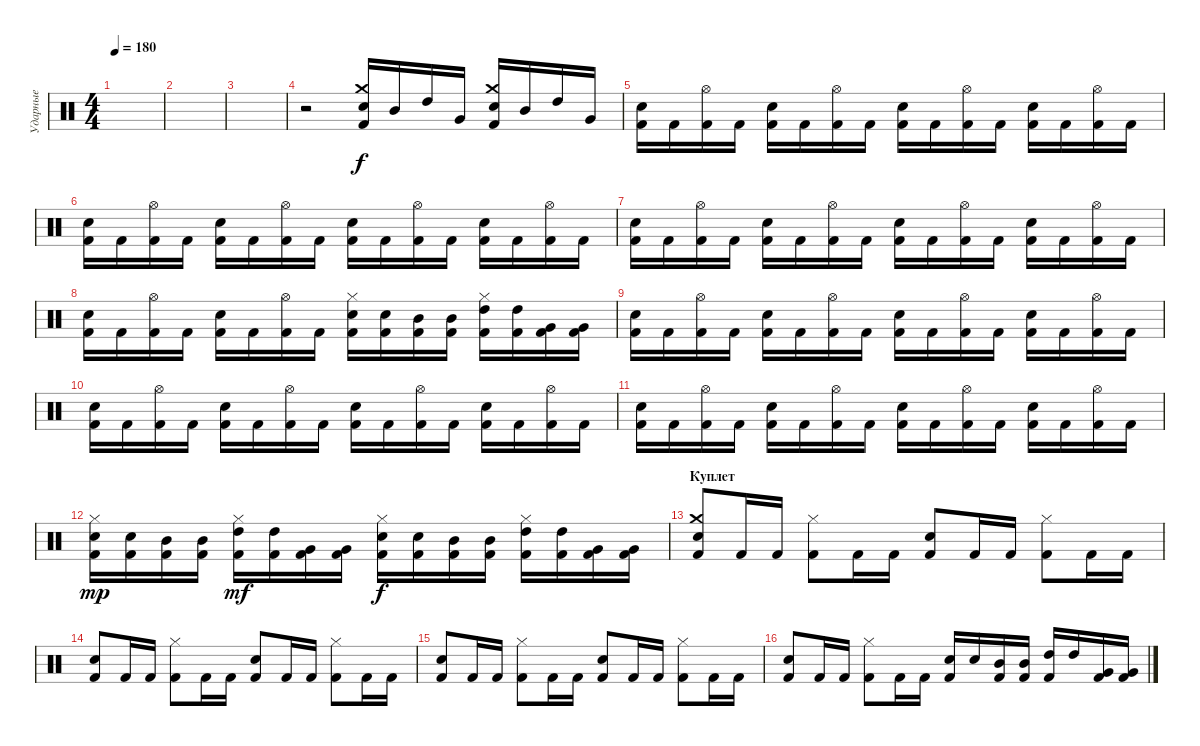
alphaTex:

\track ("Ударные" "Ударные") {instrument percussion}
\staff {score}
\articulation defaults
\ts (4 4)
\tempo 180
\clef neutral
\ks c
|
|
|
r.2 ("Snare (hit) 2" "Crash medium (hit)" "Kick (hit) 2").16 "Mid Tom (hit)".16 "High Tom (hit)".16 "Very Low Tom (hit)".16 ("Snare (hit) 2" "Crash medium (hit)" "Kick (hit) 2").16 "Mid Tom (hit)".16 "High Tom (hit)".16 "Very Low Tom (hit)".16 |
("Kick (hit) 2" "Snare (hit) 2").16 "Kick (hit) 2".16 ("Kick (hit) 2" "Hi-Hat (open)").16 "Kick (hit) 2".16 ("Kick (hit) 2" "Snare (hit) 2").16 "Kick (hit) 2".16 ("Kick (hit) 2" "Hi-Hat (open)").16 "Kick (hit) 2".16 ("Kick (hit) 2" "Snare (hit) 2").16 "Kick (hit) 2".16 ("Kick (hit) 2" "Hi-Hat (open)").16 "Kick (hit) 2".16 ("Kick (hit) 2" "Snare (hit) 2").16 "Kick (hit) 2".16 ("Kick (hit) 2" "Hi-Hat (open)").16 "Kick (hit) 2".16 |
("Kick (hit) 2" "Snare (hit) 2").16 "Kick (hit) 2".16 ("Kick (hit) 2" "Hi-Hat (open)").16 "Kick (hit) 2".16 ("Kick (hit) 2" "Snare (hit) 2").16 "Kick (hit) 2".16 ("Kick (hit) 2" "Hi-Hat (open)").16 "Kick (hit) 2".16 ("Kick (hit) 2" "Snare (hit) 2").16 "Kick (hit) 2".16 ("Kick (hit) 2" "Hi-Hat (open)").16 "Kick (hit) 2".16 ("Kick (hit) 2" "Snare (hit) 2").16 "Kick (hit) 2".16 ("Kick (hit) 2" "Hi-Hat (open)").16 "Kick (hit) 2".16 |
("Kick (hit) 2" "Snare (hit) 2").16 "Kick (hit) 2".16 ("Kick (hit) 2" "Hi-Hat (open)").16 "Kick (hit) 2".16 ("Kick (hit) 2" "Snare (hit) 2").16 "Kick (hit) 2".16 ("Kick (hit) 2" "Hi-Hat (open)").16 "Kick (hit) 2".16 ("Kick (hit) 2" "Snare (hit) 2").16 "Kick (hit) 2".16 ("Kick (hit) 2" "Hi-Hat (open)").16 "Kick (hit) 2".16 ("Kick (hit) 2" "Snare (hit) 2").16 "Kick (hit) 2".16 ("Kick (hit) 2" "Hi-Hat (open)").16 "Kick (hit) 2".16 |
("Kick (hit) 2" "Snare (hit) 2").16 "Kick (hit) 2".16 ("Kick (hit) 2" "Hi-Hat (open)").16 "Kick (hit) 2".16 ("Kick (hit) 2" "Snare (hit) 2").16 "Kick (hit) 2".16 ("Kick (hit) 2" "Hi-Hat (open)").16 "Kick (hit) 2".16 ("Kick (hit) 2" "Snare (hit) 2" "Hi-Hat (closed)").16 ("Kick (hit) 2" "Snare (hit) 2").16 ("Kick (hit) 2" "Mid Tom (hit)").16 ("Kick (hit) 2" "Mid Tom (hit)").16 ("Kick (hit) 2" "High Tom (hit)" "Hi-Hat (closed)").16 ("Kick (hit) 2" "High Tom (hit)").16 ("Kick (hit) 2" "Very Low Tom (hit)").16 ("Kick (hit) 2" "Very Low Tom (hit)").16 |
("Kick (hit) 2" "Snare (hit) 2").16 "Kick (hit) 2".16 ("Kick (hit) 2" "Hi-Hat (open)").16 "Kick (hit) 2".16 ("Kick (hit) 2" "Snare (hit) 2").16 "Kick (hit) 2".16 ("Kick (hit) 2" "Hi-Hat (open)").16 "Kick (hit) 2".16 ("Kick (hit) 2" "Snare (hit) 2").16 "Kick (hit) 2".16 ("Kick (hit) 2" "Hi-Hat (open)").16 "Kick (hit) 2".16 ("Kick (hit) 2" "Snare (hit) 2").16 "Kick (hit) 2".16 ("Kick (hit) 2" "Hi-Hat (open)").16 "Kick (hit) 2".16 |
("Kick (hit) 2" "Snare (hit) 2").16 "Kick (hit) 2".16 ("Kick (hit) 2" "Hi-Hat (open)").16 "Kick (hit) 2".16 ("Kick (hit) 2" "Snare (hit) 2").16 "Kick (hit) 2".16 ("Kick (hit) 2" "Hi-Hat (open)").16 "Kick (hit) 2".16 ("Kick (hit) 2" "Snare (hit) 2").16 "Kick (hit) 2".16 ("Kick (hit) 2" "Hi-Hat (open)").16 "Kick (hit) 2".16 ("Kick (hit) 2" "Snare (hit) 2").16 "Kick (hit) 2".16 ("Kick (hit) 2" "Hi-Hat (open)").16 "Kick (hit) 2".16 |
("Kick (hit) 2" "Snare (hit) 2").16 "Kick (hit) 2".16 ("Kick (hit) 2" "Hi-Hat (open)").16 "Kick (hit) 2".16 ("Kick (hit) 2" "Snare (hit) 2").16 "Kick (hit) 2".16 ("Kick (hit) 2" "Hi-Hat (open)").16 "Kick (hit) 2".16 ("Kick (hit) 2" "Snare (hit) 2").16 "Kick (hit) 2".16 ("Kick (hit) 2" "Hi-Hat (open)").16 "Kick (hit) 2".16 ("Kick (hit) 2" "Snare (hit) 2").16 "Kick (hit) 2".16 ("Kick (hit) 2" "Hi-Hat (open)").16 "Kick (hit) 2".16 |
("Kick (hit) 2" "Snare (hit) 2" "Hi-Hat (closed)").16{dy mp} ("Kick (hit) 2" "Snare (hit) 2").16 ("Kick (hit) 2" "Mid Tom (hit)").16 ("Kick (hit) 2" "Mid Tom (hit)").16 ("Kick (hit) 2" "High Tom (hit)" "Hi-Hat (closed)").16{dy mf} ("Kick (hit) 2" "High Tom (hit)").16 ("Kick (hit) 2" "Very Low Tom (hit)").16 ("Kick (hit) 2" "Very Low Tom (hit)").16 ("Kick (hit) 2" "Snare (hit) 2" "Hi-Hat (closed)").16{dy f} ("Kick (hit) 2" "Snare (hit) 2").16 ("Kick (hit) 2" "Mid Tom (hit)").16 ("Kick (hit) 2" "Mid Tom (hit)").16 ("Kick (hit) 2" "High Tom (hit)" "Hi-Hat (closed)").16 ("Kick (hit) 2" "High Tom (hit)").16 ("Kick (hit) 2" "Very Low Tom (hit)").16 ("Kick (hit) 2" "Very Low Tom (hit)").16 |
\section ("" "Куплет")
("Kick (hit) 2" "Snare (hit) 2" "Crash medium (hit)").8 "Kick (hit) 2".16 "Kick (hit) 2".16 ("Kick (hit) 2" "Hi-Hat (closed)").8 "Kick (hit) 2".16 "Kick (hit) 2".16 ("Kick (hit) 2" "Snare (hit) 2").8 "Kick (hit) 2".16 "Kick (hit) 2".16 ("Kick (hit) 2" "Hi-Hat (closed)").8 "Kick (hit) 2".16 "Kick (hit) 2".16 |
("Kick (hit) 2" "Snare (hit) 2").8 "Kick (hit) 2".16 "Kick (hit) 2".16 ("Kick (hit) 2" "Hi-Hat (closed)").8 "Kick (hit) 2".16 "Kick (hit) 2".16 ("Kick (hit) 2" "Snare (hit) 2").8 "Kick (hit) 2".16 "Kick (hit) 2".16 ("Kick (hit) 2" "Hi-Hat (closed)").8 "Kick (hit) 2".16 "Kick (hit) 2".16 |
("Kick (hit) 2" "Snare (hit) 2").8 "Kick (hit) 2".16 "Kick (hit) 2".16 ("Kick (hit) 2" "Hi-Hat (closed)").8 "Kick (hit) 2".16 "Kick (hit) 2".16 ("Kick (hit) 2" "Snare (hit) 2").8 "Kick (hit) 2".16 "Kick (hit) 2".16 ("Kick (hit) 2" "Hi-Hat (closed)").8 "Kick (hit) 2".16 "Kick (hit) 2".16 |
("Kick (hit) 2" "Snare (hit) 2").8 "Kick (hit) 2".16 "Kick (hit) 2".16 ("Kick (hit) 2" "Hi-Hat (closed)").8 "Kick (hit) 2".16 "Kick (hit) 2".16 ("Kick (hit) 2" "Snare (hit) 2").16 "Snare (hit) 2".16 ("Kick (hit) 2" "Mid Tom (hit)").16 ("Kick (hit) 2" "Mid Tom (hit)").16 ("Kick (hit) 2" "High Tom (hit)").16 "High Tom (hit)".16 ("Kick (hit) 2" "Very Low Tom (hit)").16 ("Kick (hit) 2" "Very Low Tom (hit)").16
